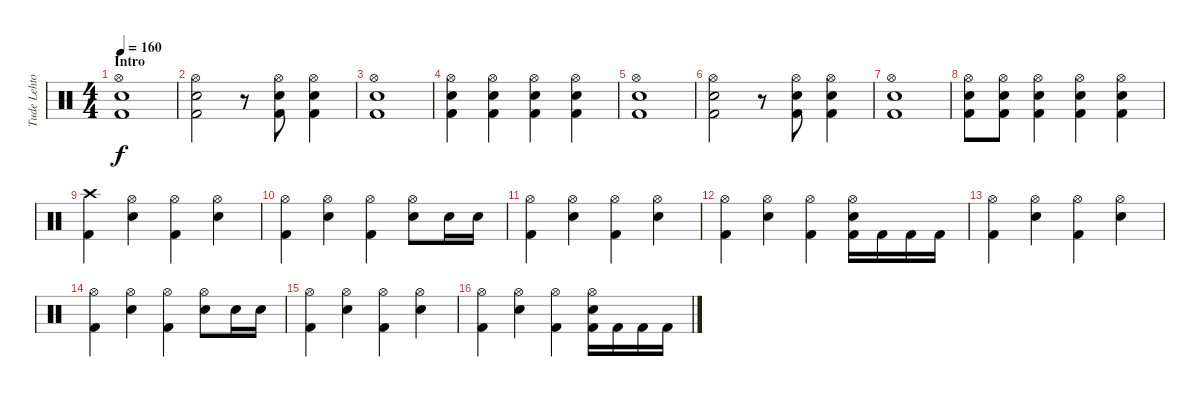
\track ("Tude Lehtonen" "Tude Lehto") {instrument percussion}
\staff {score}
\articulation defaults
\ts (4 4)
\section ("" "Intro")
\tempo 160
\clef neutral
\ks c
("Hi-Hat (open)" "Snare (hit) 2" "Kick (hit) 2").1{dy f} |
("Hi-Hat (open)" "Snare (hit) 2" "Kick (hit) 2").2 r.8 ("Hi-Hat (open)" "Snare (hit) 2" "Kick (hit) 2").8 ("Hi-Hat (open)" "Snare (hit) 2" "Kick (hit) 2").4 |
("Hi-Hat (open)" "Snare (hit) 2" "Kick (hit) 2").1 |
("Hi-Hat (open)" "Snare (hit) 2" "Kick (hit) 2").4 ("Hi-Hat (open)" "Snare (hit) 2" "Kick (hit) 2").4 ("Hi-Hat (open)" "Snare (hit) 2" "Kick (hit) 2").4 ("Hi-Hat (open)" "Snare (hit) 2" "Kick (hit) 2").4 |
("Hi-Hat (open)" "Snare (hit) 2" "Kick (hit) 2").1 |
("Hi-Hat (open)" "Snare (hit) 2" "Kick (hit) 2").2 r.8 ("Hi-Hat (open)" "Snare (hit) 2" "Kick (hit) 2").8 ("Hi-Hat (open)" "Snare (hit) 2" "Kick (hit) 2").4 |
("Hi-Hat (open)" "Snare (hit) 2" "Kick (hit) 2").1 |
("Hi-Hat (open)" "Snare (hit) 2" "Kick (hit) 2").8 ("Hi-Hat (open)" "Snare (hit) 2" "Kick (hit) 2").8 ("Hi-Hat (open)" "Snare (hit) 2" "Kick (hit) 2").4 ("Hi-Hat (open)" "Snare (hit) 2" "Kick (hit) 2").4 ("Hi-Hat (open)" "Snare (hit) 2" "Kick (hit) 2").4 |
("Crash high (hit)" "Kick (hit) 2").4 ("Hi-Hat (open)" "Snare (hit) 2").4 ("Hi-Hat (open)" "Kick (hit) 2").4 ("Hi-Hat (open)" "Snare (hit) 2").4 |
("Hi-Hat (open)" "Kick (hit) 2").4 ("Hi-Hat (open)" "Snare (hit) 2").4 ("Hi-Hat (open)" "Kick (hit) 2").4 ("Hi-Hat (open)" "Snare (hit) 2").8 "Snare (hit) 2".16 "Snare (hit) 2".16 |
("Hi-Hat (open)" "Kick (hit) 2").4 ("Hi-Hat (open)" "Snare (hit) 2").4 ("Hi-Hat (open)" "Kick (hit) 2").4 ("Hi-Hat (open)" "Snare (hit) 2").4 |
("Hi-Hat (open)" "Kick (hit) 2").4 ("Hi-Hat (open)" "Snare (hit) 2").4 ("Hi-Hat (open)" "Kick (hit) 2").4 ("Hi-Hat (open)" "Snare (hit) 2" "Kick (hit) 2").16 "Kick (hit) 2".16 "Kick (hit) 2".16 "Kick (hit) 2".16 |
("Hi-Hat (open)" "Kick (hit) 2").4 ("Hi-Hat (open)" "Snare (hit) 2").4 ("Hi-Hat (open)" "Kick (hit) 2").4 ("Hi-Hat (open)" "Snare (hit) 2").4 |
("Hi-Hat (open)" "Kick (hit) 2").4 ("Hi-Hat (open)" "Snare (hit) 2").4 ("Hi-Hat (open)" "Kick (hit) 2").4 ("Hi-Hat (open)" "Snare (hit) 2").8 "Snare (hit) 2".16 "Snare (hit) 2".16 |
("Hi-Hat (open)" "Kick (hit) 2").4 ("Hi-Hat (open)" "Snare (hit) 2").4 ("Hi-Hat (open)" "Kick (hit) 2").4 ("Hi-Hat (open)" "Snare (hit) 2").4 |
("Hi-Hat (open)" "Kick (hit) 2").4 ("Hi-Hat (open)" "Snare (hit) 2").4 ("Hi-Hat (open)" "Kick (hit) 2").4 ("Hi-Hat (open)" "Snare (hit) 2" "Kick (hit) 2").16 "Kick (hit) 2".16 "Kick (hit) 2".16 "Kick (hit) 2".16
